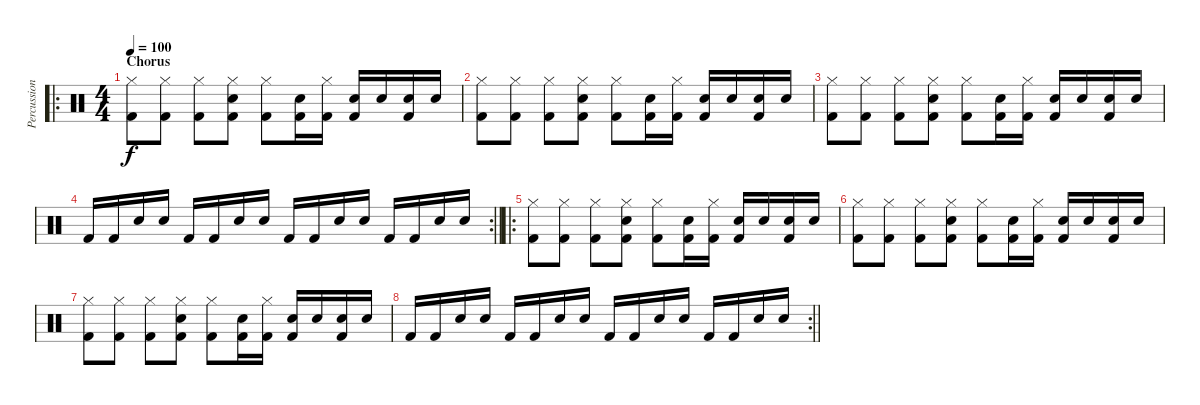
\track ("Percussion" "Percussion") {instrument percussion}
\staff {score}
\articulation defaults
\ro
\ts (4 4)
\section ("" "Chorus")
\tempo 100
\clef neutral
\ks c
("Kick (hit) 2" "Hi-Hat (closed)").8{dy f} ("Kick (hit) 2" "Hi-Hat (closed)").8 ("Kick (hit) 2" "Hi-Hat (closed)").8 ("Kick (hit) 2" "Snare (hit) 2" "Hi-Hat (closed)").8 ("Kick (hit) 2" "Hi-Hat (closed)").8 ("Kick (hit) 2" "Snare (hit) 2").16 ("Kick (hit) 2" "Hi-Hat (closed)").16 ("Kick (hit) 2" "Snare (hit) 2").16 "Snare (hit) 2".16 ("Kick (hit) 2" "Snare (hit) 2").16 "Snare (hit) 2".16 |
("Kick (hit) 2" "Hi-Hat (closed)").8 ("Kick (hit) 2" "Hi-Hat (closed)").8 ("Kick (hit) 2" "Hi-Hat (closed)").8 ("Kick (hit) 2" "Snare (hit) 2" "Hi-Hat (closed)").8 ("Kick (hit) 2" "Hi-Hat (closed)").8 ("Kick (hit) 2" "Snare (hit) 2").16 ("Kick (hit) 2" "Hi-Hat (closed)").16 ("Kick (hit) 2" "Snare (hit) 2").16 "Snare (hit) 2".16 ("Kick (hit) 2" "Snare (hit) 2").16 "Snare (hit) 2".16 |
("Kick (hit) 2" "Hi-Hat (closed)").8 ("Kick (hit) 2" "Hi-Hat (closed)").8 ("Kick (hit) 2" "Hi-Hat (closed)").8 ("Kick (hit) 2" "Snare (hit) 2" "Hi-Hat (closed)").8 ("Kick (hit) 2" "Hi-Hat (closed)").8 ("Kick (hit) 2" "Snare (hit) 2").16 ("Kick (hit) 2" "Hi-Hat (closed)").16 ("Kick (hit) 2" "Snare (hit) 2").16 "Snare (hit) 2".16 ("Kick (hit) 2" "Snare (hit) 2").16 "Snare (hit) 2".16 |
\rc 2
\barLineRight lightlight "Kick (hit) 2".16 "Kick (hit) 2".16 "Snare (hit) 2".16 "Snare (hit) 2".16 "Kick (hit) 2".16 "Kick (hit) 2".16 "Snare (hit) 2".16 "Snare (hit) 2".16 "Kick (hit) 2".16 "Kick (hit) 2".16 "Snare (hit) 2".16 "Snare (hit) 2".16 "Kick (hit) 2".16 "Kick (hit) 2".16 "Snare (hit) 2".16 "Snare (hit) 2".16
|
\ro
("Kick (hit) 2" "Hi-Hat (closed)").8 ("Kick (hit) 2" "Hi-Hat (closed)").8 ("Kick (hit) 2" "Hi-Hat (closed)").8 ("Kick (hit) 2" "Snare (hit) 2" "Hi-Hat (closed)").8 ("Kick (hit) 2" "Hi-Hat (closed)").8 ("Kick (hit) 2" "Snare (hit) 2").16 ("Kick (hit) 2" "Hi-Hat (closed)").16 ("Kick (hit) 2" "Snare (hit) 2").16 "Snare (hit) 2".16 ("Kick (hit) 2" "Snare (hit) 2").16 "Snare (hit) 2".16 |
("Kick (hit) 2" "Hi-Hat (closed)").8 ("Kick (hit) 2" "Hi-Hat (closed)").8 ("Kick (hit) 2" "Hi-Hat (closed)").8 ("Kick (hit) 2" "Snare (hit) 2" "Hi-Hat (closed)").8 ("Kick (hit) 2" "Hi-Hat (closed)").8 ("Kick (hit) 2" "Snare (hit) 2").16 ("Kick (hit) 2" "Hi-Hat (closed)").16 ("Kick (hit) 2" "Snare (hit) 2").16 "Snare (hit) 2".16 ("Kick (hit) 2" "Snare (hit) 2").16 "Snare (hit) 2".16 |
("Kick (hit) 2" "Hi-Hat (closed)").8 ("Kick (hit) 2" "Hi-Hat (closed)").8 ("Kick (hit) 2" "Hi-Hat (closed)").8 ("Kick (hit) 2" "Snare (hit) 2" "Hi-Hat (closed)").8 ("Kick (hit) 2" "Hi-Hat (closed)").8 ("Kick (hit) 2" "Snare (hit) 2").16 ("Kick (hit) 2" "Hi-Hat (closed)").16 ("Kick (hit) 2" "Snare (hit) 2").16 "Snare (hit) 2".16 ("Kick (hit) 2" "Snare (hit) 2").16 "Snare (hit) 2".16 |
\rc 2
\barLineRight lightlight "Kick (hit) 2".16 "Kick (hit) 2".16 "Snare (hit) 2".16 "Snare (hit) 2".16 "Kick (hit) 2".16 "Kick (hit) 2".16 "Snare (hit) 2".16 "Snare (hit) 2".16 "Kick (hit) 2".16 "Kick (hit) 2".16 "Snare (hit) 2".16 "Snare (hit) 2".16 "Kick (hit) 2".16 "Kick (hit) 2".16 "Snare (hit) 2".16 "Snare (hit) 2".16
